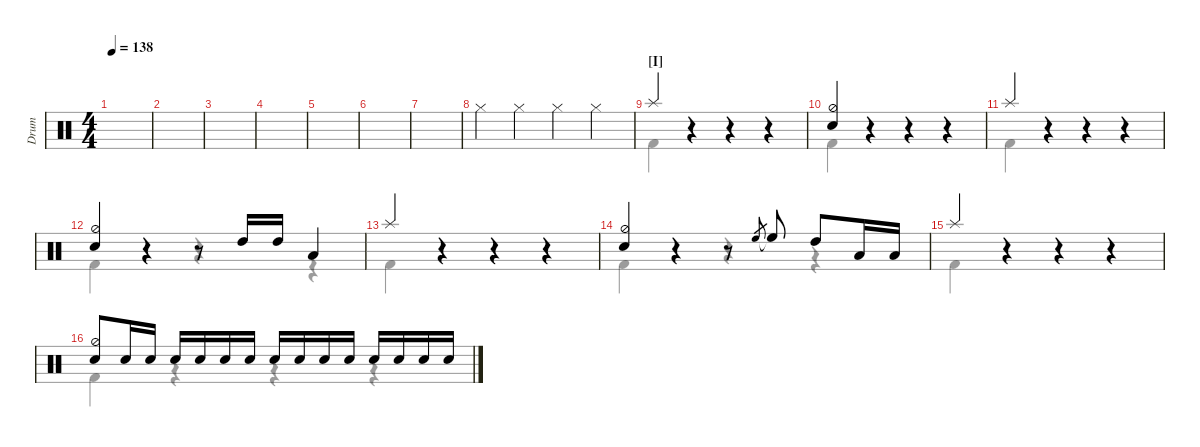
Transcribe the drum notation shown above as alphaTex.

\defaultSystemsLayout 4
\hideDynamics
\bracketExtendMode nobrackets
\track ("Drumkit" "Drum") {instrument percussion}
\staff {score}
\articulation defaults
\voice
\ts (4 4)
\tempo 138
\clef neutral
\ks c
|
|
|
|
|
|
|
"Hi-Hat (closed)".4{beam Down} "Hi-Hat (closed)".4{beam Down} "Hi-Hat (closed)".4{beam Down} "Hi-Hat (closed)".4{beam Down} |
\section ("I" "")
"Splash (hit)".4{beam Up} r.4{beam Up} r.4{beam Up} r.4{beam Up} |
("Snare (hit) 2" "Hi-Hat (half)").4{beam Up} r.4{beam Up} r.4{beam Up} r.4{beam Up} |
"Splash (hit)".4{beam Up} r.4{beam Up} r.4{beam Up} r.4{beam Up} |
("Snare (hit) 2" "Hi-Hat (half)").4{beam Up} r.4{beam Up} r.8{beam Up} "High Tom (hit)".16{beam Up} "High Tom (hit)".16{beam Up} "Low Tom (hit)".4{beam Up} |
"Splash (hit)".4{beam Up} r.4{beam Up} r.4{beam Up} r.4{beam Up} |
("Snare (hit) 2" "Hi-Hat (half)").4{beam Up} r.4{beam Up} r.8{beam Up} "High Floor Tom (hit)".8{gr beam Up} "High Floor Tom (hit)"{t}.8{beam Up} "High Tom (hit)".8{beam Up} "Low Tom (hit)".16{beam Up} "Low Tom (hit)".16{beam Up} |
"Splash (hit)".4{beam Up} r.4{beam Up} r.4{beam Up} r.4{beam Up} |
("Snare (hit) 2" "Hi-Hat (half)").8{beam Up} "Snare (hit) 2".16{beam Up} "Snare (hit) 2".16{beam Up} "Snare (hit) 2".16{beam Up} "Snare (hit) 2".16{beam Up} "Snare (hit) 2".16{beam Up} "Snare (hit) 2".16{beam Up} "Snare (hit) 2".16{beam Up} "Snare (hit) 2".16{beam Up} "Snare (hit) 2".16{beam Up} "Snare (hit) 2".16{beam Up} "Snare (hit) 2".16{beam Up} "Snare (hit) 2".16{beam Up} "Snare (hit) 2".16{beam Up} "Snare (hit) 2".16{beam Up}
\voice
\clef neutral
\ottava regular
\simile none
\ks c
|
|
|
|
|
|
|
|
|
|
|
|
|
|
|
\voice
\clef neutral
\ottava regular
\simile none
\ks c
|
|
|
|
|
|
|
|
"Kick (hit) 2".4{beam Down} r.4{beam Down} r.4{beam Down} r.4{beam Down} |
"Kick (hit) 2".4{beam Down} r.4{beam Down} r.4{beam Down} r.4{beam Down} |
"Kick (hit) 2".4{beam Down} r.4{beam Down} r.4{beam Down} r.4{beam Down} |
"Kick (hit) 2".4{beam Down} r.4{beam Down} r.4{beam Down} r.4{beam Down} |
"Kick (hit) 2".4{beam Down} r.4{beam Down} r.4{beam Down} r.4{beam Down} |
"Kick (hit) 2".4{beam Down} r.4{beam Down} r.4{beam Down} r.4{beam Down} |
"Kick (hit) 2".4{beam Down} r.4{beam Down} r.4{beam Down} r.4{beam Down} |
"Kick (hit) 2".4{beam Down} r.4{beam Down} r.4{beam Down} r.4{beam Down}
